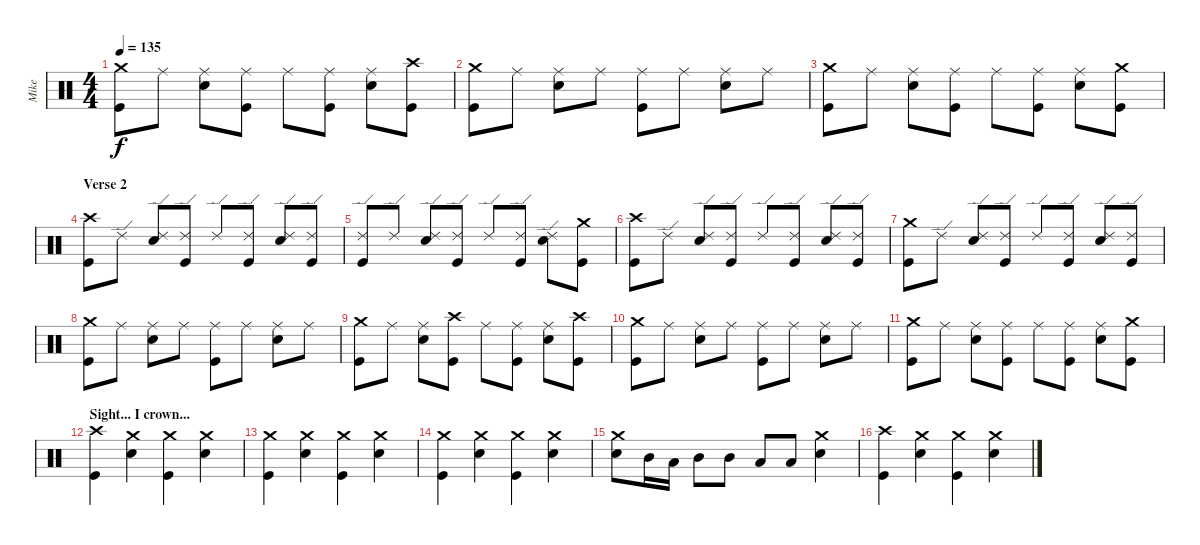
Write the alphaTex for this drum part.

\track ("Mike" "Mike") {instrument percussion}
\staff {score}
\articulation defaults
\ts (4 4)
\tempo 135
\clef neutral
\ks c
("Crash medium (hit)" "Kick (hit)").8{dy f} "Ride (middle)".8 ("Ride (middle)" "Electric Snare (hit)").8 ("Ride (middle)" "Kick (hit)").8 "Ride (middle)".8 ("Ride (middle)" "Kick (hit)").8 ("Ride (middle)" "Electric Snare (hit)").8 ("Crash high (hit)" "Kick (hit)").8 |
("Crash medium (hit)" "Kick (hit)").8 "Ride (middle)".8 ("Ride (middle)" "Electric Snare (hit)").8 "Ride (middle)".8 ("Ride (middle)" "Kick (hit)").8 "Ride (middle)".8 ("Ride (middle)" "Electric Snare (hit)").8 "Ride (middle)".8 |
("Crash medium (hit)" "Kick (hit)").8 "Ride (middle)".8 ("Ride (middle)" "Electric Snare (hit)").8 ("Ride (middle)" "Kick (hit)").8 "Ride (middle)".8 ("Ride (middle)" "Kick (hit)").8 ("Ride (middle)" "Electric Snare (hit)").8 ("Crash medium (hit)" "Kick (hit)").8 |
\section ("" "Verse 2")
("Crash high (hit)" "Kick (hit)").8 "Ride (edge) 2".8 ("Ride (edge) 2" "Electric Snare (hit)").8 ("Ride (edge) 2" "Kick (hit)").8 "Ride (edge) 2".8 ("Ride (edge) 2" "Kick (hit)").8 ("Ride (edge) 2" "Electric Snare (hit)").8 ("Ride (edge) 2" "Kick (hit)").8 |
("Ride (edge) 2" "Kick (hit)").8 "Ride (edge) 2".8 ("Ride (edge) 2" "Electric Snare (hit)").8 ("Ride (edge) 2" "Kick (hit)").8 "Ride (edge) 2".8 ("Ride (edge) 2" "Kick (hit)").8 ("Ride (edge) 2" "Electric Snare (hit)").8 ("Crash medium (hit)" "Kick (hit)").8 |
("Crash high (hit)" "Kick (hit)").8 "Ride (edge) 2".8 ("Ride (edge) 2" "Electric Snare (hit)").8 ("Ride (edge) 2" "Kick (hit)").8 "Ride (edge) 2".8 ("Ride (edge) 2" "Kick (hit)").8 ("Ride (edge) 2" "Electric Snare (hit)").8 ("Ride (edge) 2" "Kick (hit)").8 |
("Crash medium (hit)" "Kick (hit)").8 "Ride (edge) 2".8 ("Ride (edge) 2" "Electric Snare (hit)").8 ("Ride (edge) 2" "Kick (hit)").8 "Ride (edge) 2".8 ("Ride (edge) 2" "Kick (hit)").8 ("Ride (edge) 2" "Electric Snare (hit)").8 ("Ride (edge) 2" "Kick (hit)").8 |
("Crash medium (hit)" "Kick (hit)").8 "Ride (middle)".8 ("Ride (middle)" "Electric Snare (hit)").8 "Ride (middle)".8 ("Ride (middle)" "Kick (hit)").8 "Ride (middle)".8 ("Ride (middle)" "Electric Snare (hit)").8 "Ride (middle)".8 |
("Crash medium (hit)" "Kick (hit)").8 "Ride (middle)".8 ("Ride (middle)" "Electric Snare (hit)").8 ("Crash high (hit)" "Kick (hit)").8 "Ride (middle)".8 ("Ride (middle)" "Kick (hit)").8 ("Ride (middle)" "Electric Snare (hit)").8 ("Crash high (hit)" "Kick (hit)").8 |
("Crash medium (hit)" "Kick (hit)").8 "Ride (middle)".8 ("Ride (middle)" "Electric Snare (hit)").8 "Ride (middle)".8 ("Ride (middle)" "Kick (hit)").8 "Ride (middle)".8 ("Ride (middle)" "Electric Snare (hit)").8 "Ride (middle)".8 |
("Crash medium (hit)" "Kick (hit)").8 "Ride (middle)".8 ("Ride (middle)" "Electric Snare (hit)").8 ("Ride (middle)" "Kick (hit)").8 "Ride (middle)".8 ("Ride (middle)" "Kick (hit)").8 ("Ride (middle)" "Electric Snare (hit)").8 ("Crash medium (hit)" "Kick (hit)").8 |
\section ("" "Sight... I crown...")
("Crash high (hit)" "Kick (hit)").4 ("Crash medium (hit)" "Electric Snare (hit)").4 ("Crash medium (hit)" "Kick (hit)").4 ("Crash medium (hit)" "Electric Snare (hit)").4 |
("Crash medium (hit)" "Kick (hit)").4 ("Crash medium (hit)" "Electric Snare (hit)").4 ("Crash medium (hit)" "Kick (hit)").4 ("Crash medium (hit)" "Electric Snare (hit)").4 |
("Crash medium (hit)" "Kick (hit)").4 ("Crash medium (hit)" "Electric Snare (hit)").4 ("Crash medium (hit)" "Kick (hit)").4 ("Crash medium (hit)" "Electric Snare (hit)").4 |
("Crash medium (hit)" "Electric Snare (hit)").8 "Mid Tom (hit)".16 "Low Tom (hit)".16 "Mid Tom (hit)".8 "Mid Tom (hit)".8 "Low Tom (hit)".8 "Low Tom (hit)".8 ("Crash medium (hit)" "Electric Snare (hit)").4 |
("Crash high (hit)" "Kick (hit)").4 ("Crash medium (hit)" "Electric Snare (hit)").4 ("Crash medium (hit)" "Kick (hit)").4 ("Crash medium (hit)" "Electric Snare (hit)").4
